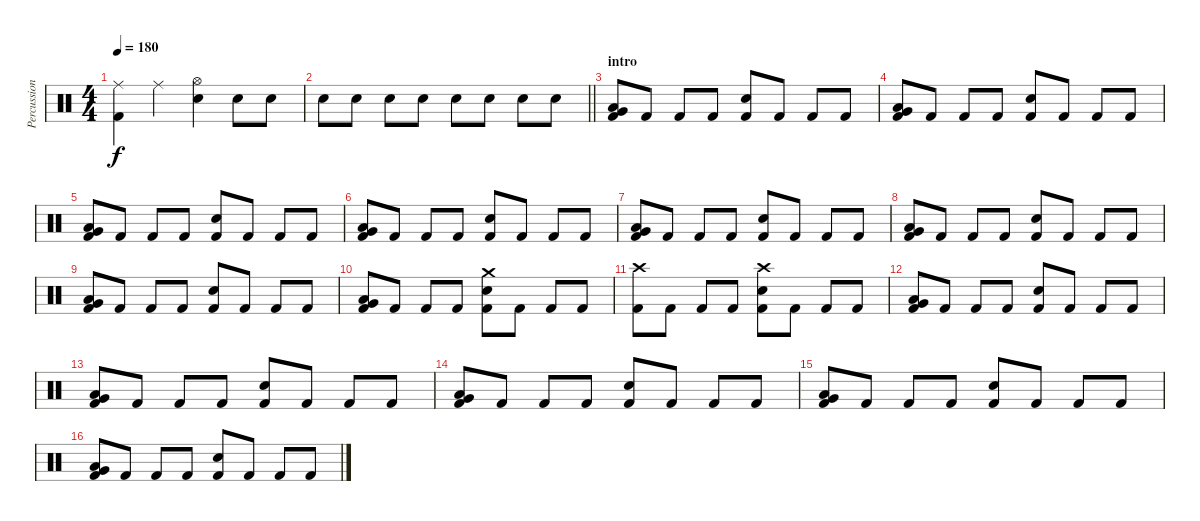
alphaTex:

\track ("Percussion" "Percussion") {instrument percussion}
\staff {score}
\articulation defaults
\ts (4 4)
\tempo 180
\clef neutral
\ks c
("Ride (middle)" "Kick (hit) 2").4{dy f} "Ride (middle)".4 ("Hi-Hat (open)" "Electric Snare (hit)").4 "Electric Snare (hit)".8 "Electric Snare (hit)".8 |
\barLineRight lightlight "Electric Snare (hit)".8 "Electric Snare (hit)".8 "Electric Snare (hit)".8 "Electric Snare (hit)".8 "Electric Snare (hit)".8 "Electric Snare (hit)".8 "Electric Snare (hit)".8 "Electric Snare (hit)".8
|
\section ("" "intro")
("Very Low Tom (hit)" "Low Floor Tom (hit)" "Kick (hit) 2").8 "Kick (hit) 2".8 "Kick (hit) 2".8 "Kick (hit) 2".8 ("Electric Snare (hit)" "Kick (hit) 2").8 "Kick (hit) 2".8 "Kick (hit) 2".8 "Kick (hit) 2".8 |
("Very Low Tom (hit)" "Low Floor Tom (hit)" "Kick (hit) 2").8 "Kick (hit) 2".8 "Kick (hit) 2".8 "Kick (hit) 2".8 ("Electric Snare (hit)" "Kick (hit) 2").8 "Kick (hit) 2".8 "Kick (hit) 2".8 "Kick (hit) 2".8 |
("Very Low Tom (hit)" "Low Floor Tom (hit)" "Kick (hit) 2").8 "Kick (hit) 2".8 "Kick (hit) 2".8 "Kick (hit) 2".8 ("Electric Snare (hit)" "Kick (hit) 2").8 "Kick (hit) 2".8 "Kick (hit) 2".8 "Kick (hit) 2".8 |
("Very Low Tom (hit)" "Low Floor Tom (hit)" "Kick (hit) 2").8 "Kick (hit) 2".8 "Kick (hit) 2".8 "Kick (hit) 2".8 ("Electric Snare (hit)" "Kick (hit) 2").8 "Kick (hit) 2".8 "Kick (hit) 2".8 "Kick (hit) 2".8 |
("Very Low Tom (hit)" "Low Floor Tom (hit)" "Kick (hit) 2").8 "Kick (hit) 2".8 "Kick (hit) 2".8 "Kick (hit) 2".8 ("Electric Snare (hit)" "Kick (hit) 2").8 "Kick (hit) 2".8 "Kick (hit) 2".8 "Kick (hit) 2".8 |
("Very Low Tom (hit)" "Low Floor Tom (hit)" "Kick (hit) 2").8 "Kick (hit) 2".8 "Kick (hit) 2".8 "Kick (hit) 2".8 ("Electric Snare (hit)" "Kick (hit) 2").8 "Kick (hit) 2".8 "Kick (hit) 2".8 "Kick (hit) 2".8 |
("Very Low Tom (hit)" "Low Floor Tom (hit)" "Kick (hit) 2").8 "Kick (hit) 2".8 "Kick (hit) 2".8 "Kick (hit) 2".8 ("Electric Snare (hit)" "Kick (hit) 2").8 "Kick (hit) 2".8 "Kick (hit) 2".8 "Kick (hit) 2".8 |
("Very Low Tom (hit)" "Low Floor Tom (hit)" "Kick (hit) 2").8 "Kick (hit) 2".8 "Kick (hit) 2".8 "Kick (hit) 2".8 ("Crash medium (hit)" "Electric Snare (hit)" "Kick (hit) 2").8 "Kick (hit) 2".8 "Kick (hit) 2".8 "Kick (hit) 2".8 |
("Crash high (hit)" "Kick (hit) 2").8 "Kick (hit) 2".8 "Kick (hit) 2".8 "Kick (hit) 2".8 ("Crash high (hit)" "Electric Snare (hit)" "Kick (hit) 2").8 "Kick (hit) 2".8 "Kick (hit) 2".8 "Kick (hit) 2".8 |
("Very Low Tom (hit)" "Low Floor Tom (hit)" "Kick (hit) 2").8 "Kick (hit) 2".8 "Kick (hit) 2".8 "Kick (hit) 2".8 ("Electric Snare (hit)" "Kick (hit) 2").8 "Kick (hit) 2".8 "Kick (hit) 2".8 "Kick (hit) 2".8 |
("Very Low Tom (hit)" "Low Floor Tom (hit)" "Kick (hit) 2").8 "Kick (hit) 2".8 "Kick (hit) 2".8 "Kick (hit) 2".8 ("Electric Snare (hit)" "Kick (hit) 2").8 "Kick (hit) 2".8 "Kick (hit) 2".8 "Kick (hit) 2".8 |
("Very Low Tom (hit)" "Low Floor Tom (hit)" "Kick (hit) 2").8 "Kick (hit) 2".8 "Kick (hit) 2".8 "Kick (hit) 2".8 ("Electric Snare (hit)" "Kick (hit) 2").8 "Kick (hit) 2".8 "Kick (hit) 2".8 "Kick (hit) 2".8 |
("Very Low Tom (hit)" "Low Floor Tom (hit)" "Kick (hit) 2").8 "Kick (hit) 2".8 "Kick (hit) 2".8 "Kick (hit) 2".8 ("Electric Snare (hit)" "Kick (hit) 2").8 "Kick (hit) 2".8 "Kick (hit) 2".8 "Kick (hit) 2".8 |
("Very Low Tom (hit)" "Low Floor Tom (hit)" "Kick (hit) 2").8 "Kick (hit) 2".8 "Kick (hit) 2".8 "Kick (hit) 2".8 ("Electric Snare (hit)" "Kick (hit) 2").8 "Kick (hit) 2".8 "Kick (hit) 2".8 "Kick (hit) 2".8
